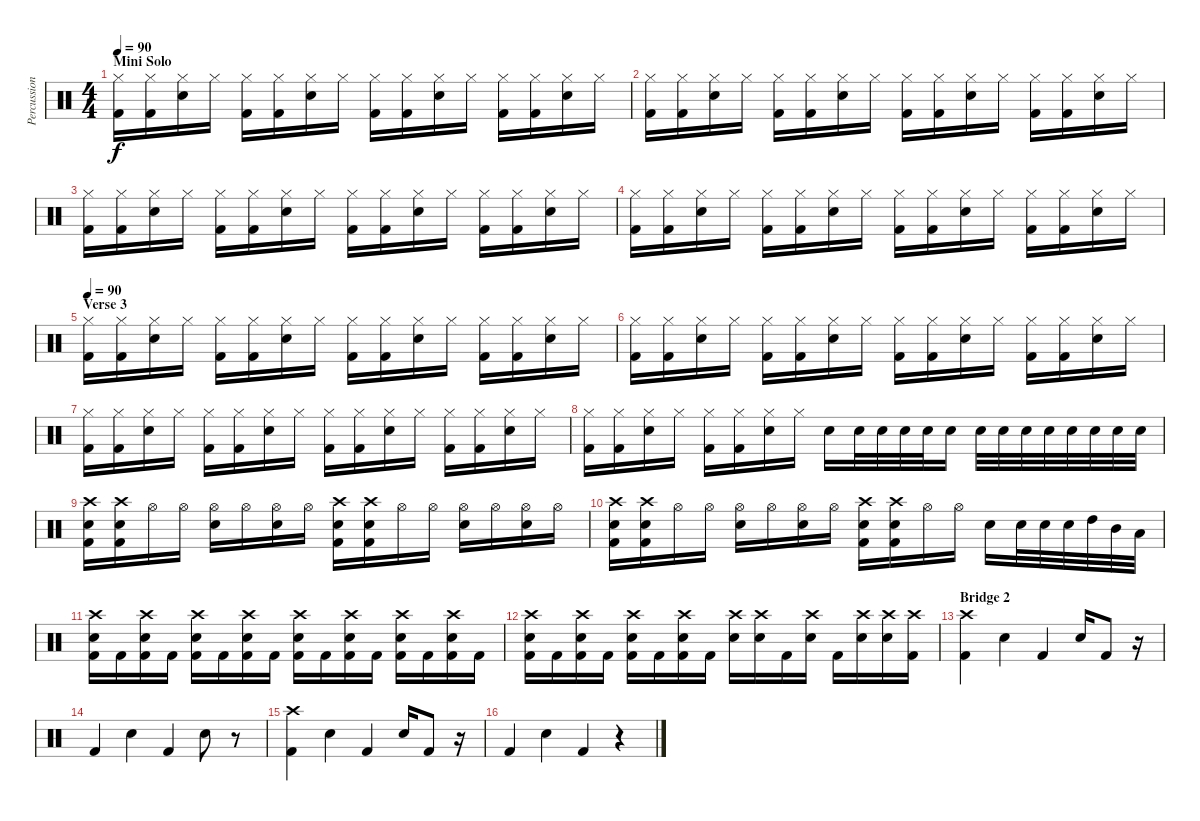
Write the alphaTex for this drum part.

\track ("Percussion" "Percussion") {instrument percussion}
\staff {score}
\articulation defaults
\ts (4 4)
\section ("" "Mini Solo")
\tempo 90
\clef neutral
\ks c
("Hi-Hat (closed)" "Kick (hit) 2").16{dy f} ("Hi-Hat (closed)" "Kick (hit) 2").16 ("Hi-Hat (closed)" "Snare (hit) 2").16 "Hi-Hat (closed)".16 ("Hi-Hat (closed)" "Kick (hit) 2").16 ("Hi-Hat (closed)" "Kick (hit) 2").16 ("Hi-Hat (closed)" "Snare (hit) 2").16 "Hi-Hat (closed)".16 ("Hi-Hat (closed)" "Kick (hit) 2").16 ("Hi-Hat (closed)" "Kick (hit) 2").16 ("Hi-Hat (closed)" "Snare (hit) 2").16 "Hi-Hat (closed)".16 ("Hi-Hat (closed)" "Kick (hit) 2").16 ("Hi-Hat (closed)" "Kick (hit) 2").16 ("Hi-Hat (closed)" "Snare (hit) 2").16 "Hi-Hat (closed)".16 |
("Hi-Hat (closed)" "Kick (hit) 2").16 ("Hi-Hat (closed)" "Kick (hit) 2").16 ("Hi-Hat (closed)" "Snare (hit) 2").16 "Hi-Hat (closed)".16 ("Hi-Hat (closed)" "Kick (hit) 2").16 ("Hi-Hat (closed)" "Kick (hit) 2").16 ("Hi-Hat (closed)" "Snare (hit) 2").16 "Hi-Hat (closed)".16 ("Hi-Hat (closed)" "Kick (hit) 2").16 ("Hi-Hat (closed)" "Kick (hit) 2").16 ("Hi-Hat (closed)" "Snare (hit) 2").16 "Hi-Hat (closed)".16 ("Hi-Hat (closed)" "Kick (hit) 2").16 ("Hi-Hat (closed)" "Kick (hit) 2").16 ("Hi-Hat (closed)" "Snare (hit) 2").16 "Hi-Hat (closed)".16 |
("Hi-Hat (closed)" "Kick (hit) 2").16 ("Hi-Hat (closed)" "Kick (hit) 2").16 ("Hi-Hat (closed)" "Snare (hit) 2").16 "Hi-Hat (closed)".16 ("Hi-Hat (closed)" "Kick (hit) 2").16 ("Hi-Hat (closed)" "Kick (hit) 2").16 ("Hi-Hat (closed)" "Snare (hit) 2").16 "Hi-Hat (closed)".16 ("Hi-Hat (closed)" "Kick (hit) 2").16 ("Hi-Hat (closed)" "Kick (hit) 2").16 ("Hi-Hat (closed)" "Snare (hit) 2").16 "Hi-Hat (closed)".16 ("Hi-Hat (closed)" "Kick (hit) 2").16 ("Hi-Hat (closed)" "Kick (hit) 2").16 ("Hi-Hat (closed)" "Snare (hit) 2").16 "Hi-Hat (closed)".16 |
("Hi-Hat (closed)" "Kick (hit) 2").16 ("Hi-Hat (closed)" "Kick (hit) 2").16 ("Hi-Hat (closed)" "Snare (hit) 2").16 "Hi-Hat (closed)".16 ("Hi-Hat (closed)" "Kick (hit) 2").16 ("Hi-Hat (closed)" "Kick (hit) 2").16 ("Hi-Hat (closed)" "Snare (hit) 2").16 "Hi-Hat (closed)".16 ("Hi-Hat (closed)" "Kick (hit) 2").16 ("Hi-Hat (closed)" "Kick (hit) 2").16 ("Hi-Hat (closed)" "Snare (hit) 2").16 "Hi-Hat (closed)".16 ("Hi-Hat (closed)" "Kick (hit) 2").16 ("Hi-Hat (closed)" "Kick (hit) 2").16 ("Hi-Hat (closed)" "Snare (hit) 2").16 "Hi-Hat (closed)".16 |
\section ("" "Verse 3")
\tempo 90
("Hi-Hat (closed)" "Kick (hit) 2").16 ("Hi-Hat (closed)" "Kick (hit) 2").16 ("Hi-Hat (closed)" "Snare (hit) 2").16 "Hi-Hat (closed)".16 ("Hi-Hat (closed)" "Kick (hit) 2").16 ("Hi-Hat (closed)" "Kick (hit) 2").16 ("Hi-Hat (closed)" "Snare (hit) 2").16 "Hi-Hat (closed)".16 ("Hi-Hat (closed)" "Kick (hit) 2").16 ("Hi-Hat (closed)" "Kick (hit) 2").16 ("Hi-Hat (closed)" "Snare (hit) 2").16 "Hi-Hat (closed)".16 ("Hi-Hat (closed)" "Kick (hit) 2").16 ("Hi-Hat (closed)" "Kick (hit) 2").16 ("Hi-Hat (closed)" "Snare (hit) 2").16 "Hi-Hat (closed)".16 |
("Hi-Hat (closed)" "Kick (hit) 2").16 ("Hi-Hat (closed)" "Kick (hit) 2").16 ("Hi-Hat (closed)" "Snare (hit) 2").16 "Hi-Hat (closed)".16 ("Hi-Hat (closed)" "Kick (hit) 2").16 ("Hi-Hat (closed)" "Kick (hit) 2").16 ("Hi-Hat (closed)" "Snare (hit) 2").16 "Hi-Hat (closed)".16 ("Hi-Hat (closed)" "Kick (hit) 2").16 ("Hi-Hat (closed)" "Kick (hit) 2").16 ("Hi-Hat (closed)" "Snare (hit) 2").16 "Hi-Hat (closed)".16 ("Hi-Hat (closed)" "Kick (hit) 2").16 ("Hi-Hat (closed)" "Kick (hit) 2").16 ("Hi-Hat (closed)" "Snare (hit) 2").16 "Hi-Hat (closed)".16 |
("Hi-Hat (closed)" "Kick (hit) 2").16 ("Hi-Hat (closed)" "Kick (hit) 2").16 ("Hi-Hat (closed)" "Snare (hit) 2").16 "Hi-Hat (closed)".16 ("Hi-Hat (closed)" "Kick (hit) 2").16 ("Hi-Hat (closed)" "Kick (hit) 2").16 ("Hi-Hat (closed)" "Snare (hit) 2").16 "Hi-Hat (closed)".16 ("Hi-Hat (closed)" "Kick (hit) 2").16 ("Hi-Hat (closed)" "Kick (hit) 2").16 ("Hi-Hat (closed)" "Snare (hit) 2").16 "Hi-Hat (closed)".16 ("Hi-Hat (closed)" "Kick (hit) 2").16 ("Hi-Hat (closed)" "Kick (hit) 2").16 ("Hi-Hat (closed)" "Snare (hit) 2").16 "Hi-Hat (closed)".16 |
("Hi-Hat (closed)" "Kick (hit) 2").16 ("Hi-Hat (closed)" "Kick (hit) 2").16 ("Hi-Hat (closed)" "Snare (hit) 2").16 "Hi-Hat (closed)".16 ("Hi-Hat (closed)" "Kick (hit) 2").16 ("Hi-Hat (closed)" "Kick (hit) 2").16 ("Hi-Hat (closed)" "Snare (hit) 2").16 "Hi-Hat (closed)".16 "Snare (hit) 2".16 "Snare (hit) 2".32 "Snare (hit) 2".32 "Snare (hit) 2".32 "Snare (hit) 2".32 "Snare (hit) 2".16 "Snare (hit) 2".32 "Snare (hit) 2".32 "Snare (hit) 2".32 "Snare (hit) 2".32 "Snare (hit) 2".32 "Snare (hit) 2".32 "Snare (hit) 2".32 "Snare (hit) 2".32 |
("Crash high (hit)" "Snare (hit) 2" "Kick (hit) 2").16 ("Crash high (hit)" "Snare (hit) 2" "Kick (hit) 2").16 "Hi-Hat (open)".16 "Hi-Hat (open)".16 ("Hi-Hat (open)" "Snare (hit) 2").16 "Hi-Hat (open)".16 ("Hi-Hat (open)" "Snare (hit) 2").16 "Hi-Hat (open)".16 ("Crash high (hit)" "Snare (hit) 2" "Kick (hit) 2").16 ("Crash high (hit)" "Snare (hit) 2" "Kick (hit) 2").16 "Hi-Hat (open)".16 "Hi-Hat (open)".16 ("Hi-Hat (open)" "Snare (hit) 2").16 "Hi-Hat (open)".16 ("Hi-Hat (open)" "Snare (hit) 2").16 "Hi-Hat (open)".16 |
("Crash high (hit)" "Snare (hit) 2" "Kick (hit) 2").16 ("Crash high (hit)" "Snare (hit) 2" "Kick (hit) 2").16 "Hi-Hat (open)".16 "Hi-Hat (open)".16 ("Hi-Hat (open)" "Snare (hit) 2").16 "Hi-Hat (open)".16 ("Hi-Hat (open)" "Snare (hit) 2").16 "Hi-Hat (open)".16 ("Crash high (hit)" "Snare (hit) 2" "Kick (hit) 2").16 ("Crash high (hit)" "Snare (hit) 2" "Kick (hit) 2").16 "Hi-Hat (open)".16 "Hi-Hat (open)".16 "Snare (hit) 2".16 "Snare (hit) 2".32 "Snare (hit) 2".32 "Snare (hit) 2".32 "High Tom (hit)".32 "Mid Tom (hit)".32 "Low Tom (hit)".32 |
("Crash high (hit)" "Snare (hit) 2" "Kick (hit) 2").16 "Kick (hit) 2".16 ("Crash high (hit)" "Snare (hit) 2" "Kick (hit) 2").16 "Kick (hit) 2".16 ("Crash high (hit)" "Snare (hit) 2" "Kick (hit) 2").16 "Kick (hit) 2".16 ("Crash high (hit)" "Snare (hit) 2" "Kick (hit) 2").16 "Kick (hit) 2".16 ("Crash high (hit)" "Snare (hit) 2" "Kick (hit) 2").16 "Kick (hit) 2".16 ("Crash high (hit)" "Snare (hit) 2" "Kick (hit) 2").16 "Kick (hit) 2".16 ("Crash high (hit)" "Snare (hit) 2" "Kick (hit) 2").16 "Kick (hit) 2".16 ("Crash high (hit)" "Snare (hit) 2" "Kick (hit) 2").16 "Kick (hit) 2".16 |
("Crash high (hit)" "Snare (hit) 2" "Kick (hit) 2").16 "Kick (hit) 2".16 ("Crash high (hit)" "Snare (hit) 2" "Kick (hit) 2").16 "Kick (hit) 2".16 ("Crash high (hit)" "Snare (hit) 2" "Kick (hit) 2").16 "Kick (hit) 2".16 ("Crash high (hit)" "Snare (hit) 2" "Kick (hit) 2").16 "Kick (hit) 2".16 ("Crash high (hit)" "Snare (hit) 2").16 ("Crash high (hit)" "Snare (hit) 2").16 "Kick (hit) 2".16 ("Crash high (hit)" "Snare (hit) 2").16 "Kick (hit) 2".16 ("Crash high (hit)" "Snare (hit) 2").16 ("Crash high (hit)" "Snare (hit) 2").16 ("Crash high (hit)" "Kick (hit) 2").16 |
\section ("" "Bridge 2")
("Crash high (hit)" "Kick (hit) 2").4 "Snare (hit) 2".4 "Kick (hit) 2".4 "Snare (hit) 2".16 "Kick (hit) 2".8 r.16 |
"Kick (hit) 2".4 "Snare (hit) 2".4 "Kick (hit) 2".4 "Snare (hit) 2".8 r.8 |
("Crash high (hit)" "Kick (hit) 2").4 "Snare (hit) 2".4 "Kick (hit) 2".4 "Snare (hit) 2".16 "Kick (hit) 2".8 r.16 |
"Kick (hit) 2".4 "Snare (hit) 2".4 "Kick (hit) 2".4 r.4
